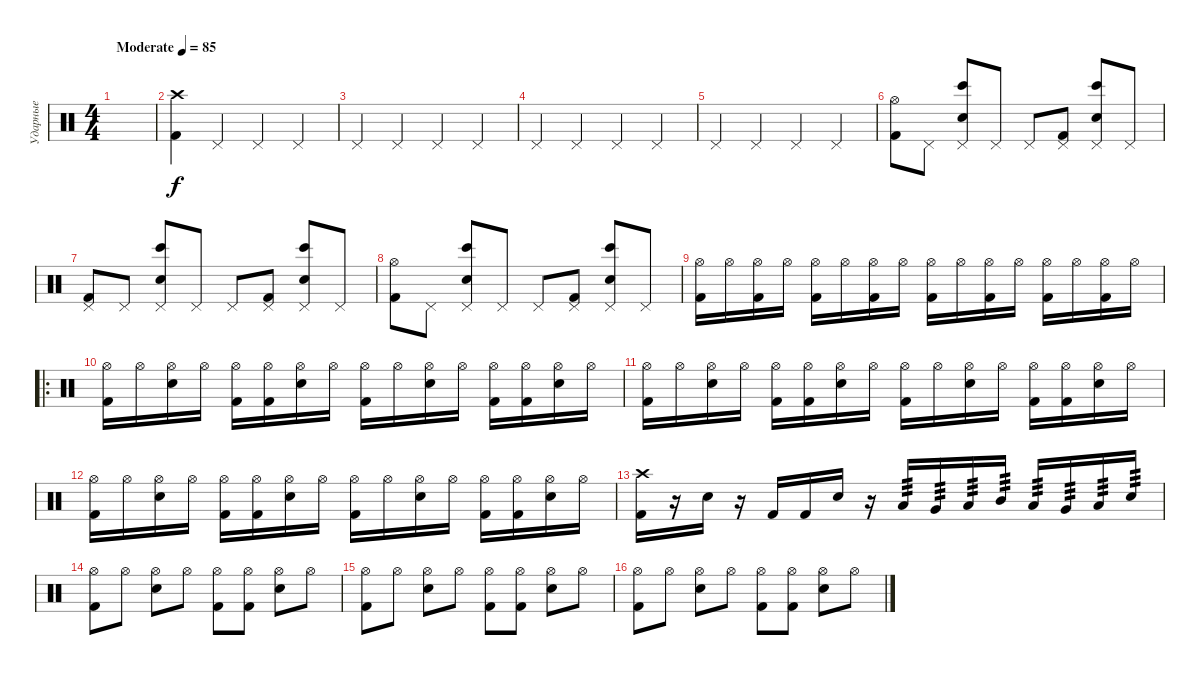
\track ("Ударные" "Ударные") {instrument percussion}
\staff {score}
\articulation defaults
\ts (4 4)
\tempo (85 "Moderate")
\clef neutral
\ks c
|
("Crash high (hit)" "Kick (hit) 2").4 "Pedal Hi-Hat (hit)".4 "Pedal Hi-Hat (hit)".4 "Pedal Hi-Hat (hit)".4 |
"Pedal Hi-Hat (hit)".4 "Pedal Hi-Hat (hit)".4 "Pedal Hi-Hat (hit)".4 "Pedal Hi-Hat (hit)".4 |
"Pedal Hi-Hat (hit)".4 "Pedal Hi-Hat (hit)".4 "Pedal Hi-Hat (hit)".4 "Pedal Hi-Hat (hit)".4 |
"Pedal Hi-Hat (hit)".4 "Pedal Hi-Hat (hit)".4 "Pedal Hi-Hat (hit)".4 "Pedal Hi-Hat (hit)".4 |
("Hi-Hat (open)" "Kick (hit) 2").8 "Pedal Hi-Hat (hit)".8 ("Pedal Hi-Hat (hit)" "Bongo High (hit)" "Snare (hit) 2").8 "Pedal Hi-Hat (hit)".8 "Pedal Hi-Hat (hit)".8 ("Pedal Hi-Hat (hit)" "Kick (hit) 2").8 ("Pedal Hi-Hat (hit)" "Bongo High (hit)" "Snare (hit) 2").8 "Pedal Hi-Hat (hit)".8 |
("Pedal Hi-Hat (hit)" "Kick (hit) 2").8 "Pedal Hi-Hat (hit)".8 ("Pedal Hi-Hat (hit)" "Bongo High (hit)" "Snare (hit) 2").8 "Pedal Hi-Hat (hit)".8 "Pedal Hi-Hat (hit)".8 ("Pedal Hi-Hat (hit)" "Kick (hit) 2").8 ("Pedal Hi-Hat (hit)" "Bongo High (hit)" "Snare (hit) 2").8 "Pedal Hi-Hat (hit)".8 |
("Hi-Hat (open)" "Kick (hit) 2").8 "Pedal Hi-Hat (hit)".8 ("Pedal Hi-Hat (hit)" "Bongo High (hit)" "Snare (hit) 2").8 "Pedal Hi-Hat (hit)".8 "Pedal Hi-Hat (hit)".8 ("Pedal Hi-Hat (hit)" "Kick (hit) 2").8 ("Pedal Hi-Hat (hit)" "Bongo High (hit)" "Snare (hit) 2").8 "Pedal Hi-Hat (hit)".8 |
("Hi-Hat (open)" "Kick (hit) 2").16 "Hi-Hat (open)".16 ("Hi-Hat (open)" "Kick (hit) 2").16 "Hi-Hat (open)".16 ("Hi-Hat (open)" "Kick (hit) 2").16 "Hi-Hat (open)".16 ("Hi-Hat (open)" "Kick (hit) 2").16 "Hi-Hat (open)".16 ("Hi-Hat (open)" "Kick (hit) 2").16 "Hi-Hat (open)".16 ("Hi-Hat (open)" "Kick (hit) 2").16 "Hi-Hat (open)".16 ("Hi-Hat (open)" "Kick (hit) 2").16 "Hi-Hat (open)".16 ("Hi-Hat (open)" "Kick (hit) 2").16 "Hi-Hat (open)".16 |
\ro
("Hi-Hat (open)" "Kick (hit) 2").16 "Hi-Hat (open)".16 ("Hi-Hat (open)" "Electric Snare (hit)").16 "Hi-Hat (open)".16 ("Hi-Hat (open)" "Kick (hit) 2").16 ("Hi-Hat (open)" "Kick (hit) 2").16 ("Hi-Hat (open)" "Electric Snare (hit)").16 "Hi-Hat (open)".16 ("Hi-Hat (open)" "Kick (hit) 2").16 "Hi-Hat (open)".16 ("Hi-Hat (open)" "Electric Snare (hit)").16 "Hi-Hat (open)".16 ("Hi-Hat (open)" "Kick (hit) 2").16 ("Hi-Hat (open)" "Kick (hit) 2").16 ("Hi-Hat (open)" "Electric Snare (hit)").16 "Hi-Hat (open)".16 |
("Hi-Hat (open)" "Kick (hit) 2").16 "Hi-Hat (open)".16 ("Hi-Hat (open)" "Electric Snare (hit)").16 "Hi-Hat (open)".16 ("Hi-Hat (open)" "Kick (hit) 2").16 ("Hi-Hat (open)" "Kick (hit) 2").16 ("Hi-Hat (open)" "Electric Snare (hit)").16 "Hi-Hat (open)".16 ("Hi-Hat (open)" "Kick (hit) 2").16 "Hi-Hat (open)".16 ("Hi-Hat (open)" "Electric Snare (hit)").16 "Hi-Hat (open)".16 ("Hi-Hat (open)" "Kick (hit) 2").16 ("Hi-Hat (open)" "Kick (hit) 2").16 ("Hi-Hat (open)" "Electric Snare (hit)").16 "Hi-Hat (open)".16 |
("Hi-Hat (open)" "Kick (hit) 2").16 "Hi-Hat (open)".16 ("Hi-Hat (open)" "Electric Snare (hit)").16 "Hi-Hat (open)".16 ("Hi-Hat (open)" "Kick (hit) 2").16 ("Hi-Hat (open)" "Kick (hit) 2").16 ("Hi-Hat (open)" "Electric Snare (hit)").16 "Hi-Hat (open)".16 ("Hi-Hat (open)" "Kick (hit) 2").16 "Hi-Hat (open)".16 ("Hi-Hat (open)" "Electric Snare (hit)").16 "Hi-Hat (open)".16 ("Hi-Hat (open)" "Kick (hit) 2").16 ("Hi-Hat (open)" "Kick (hit) 2").16 ("Hi-Hat (open)" "Electric Snare (hit)").16 "Hi-Hat (open)".16 |
("Crash high (hit)" "Kick (hit) 2").16 r.16 "Electric Snare (hit)".16 r.16 "Kick (hit) 2".16 "Kick (hit) 2".16 "Electric Snare (hit)".16 r.16 "Low Floor Tom (hit)".16{tp 3} "Very Low Tom (hit)".16{tp 3} "Low Tom (hit)".16{tp 3} "Mid Tom (hit)".16{tp 3} "Low Tom (hit)".16{tp 3} "Very Low Tom (hit)".16{tp 3} "Low Floor Tom (hit)".16{tp 3} "Electric Snare (hit)".16{tp 3} |
("Hi-Hat (open)" "Kick (hit) 2").8 "Hi-Hat (open)".8 ("Hi-Hat (open)" "Electric Snare (hit)").8 "Hi-Hat (open)".8 ("Hi-Hat (open)" "Kick (hit) 2").8 ("Hi-Hat (open)" "Kick (hit) 2").8 ("Hi-Hat (open)" "Electric Snare (hit)").8 "Hi-Hat (open)".8 |
("Hi-Hat (open)" "Kick (hit) 2").8 "Hi-Hat (open)".8 ("Hi-Hat (open)" "Electric Snare (hit)").8 "Hi-Hat (open)".8 ("Hi-Hat (open)" "Kick (hit) 2").8 ("Hi-Hat (open)" "Kick (hit) 2").8 ("Hi-Hat (open)" "Electric Snare (hit)").8 "Hi-Hat (open)".8 |
("Hi-Hat (open)" "Kick (hit) 2").8 "Hi-Hat (open)".8 ("Hi-Hat (open)" "Electric Snare (hit)").8 "Hi-Hat (open)".8 ("Hi-Hat (open)" "Kick (hit) 2").8 ("Hi-Hat (open)" "Kick (hit) 2").8 ("Hi-Hat (open)" "Electric Snare (hit)").8 "Hi-Hat (open)".8
